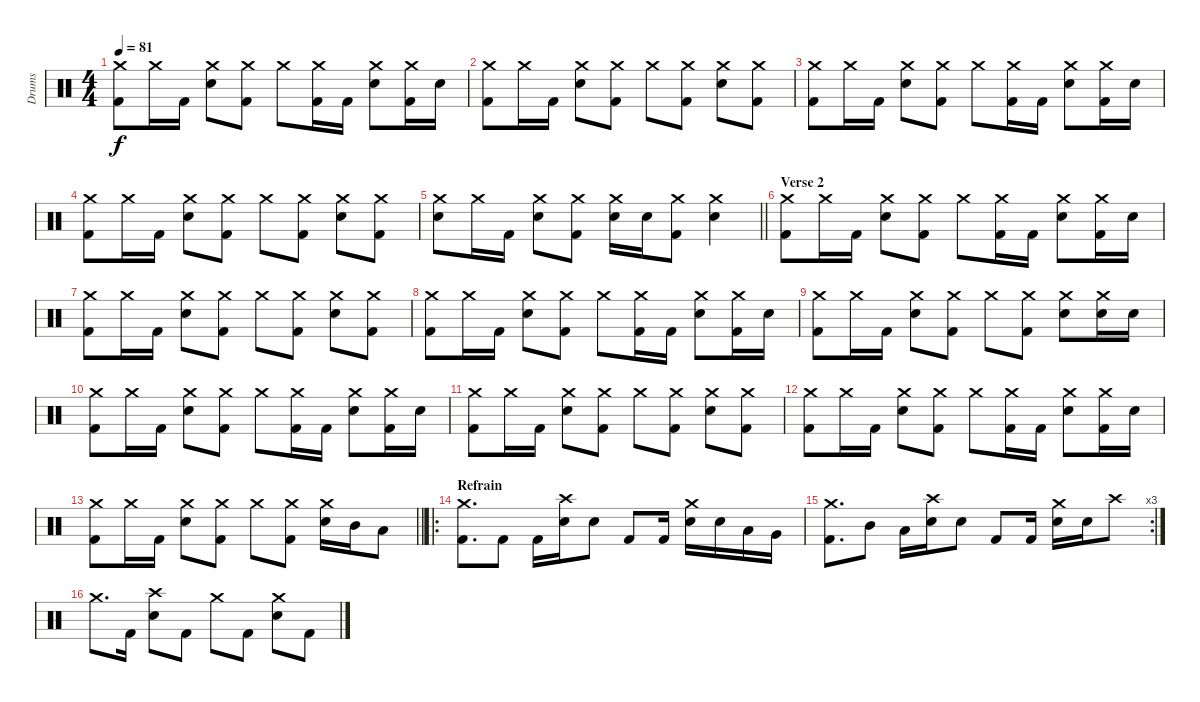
\track ("Drums" "Drums") {instrument percussion}
\staff {score}
\articulation defaults
\ts (4 4)
\tempo 81
\clef neutral
\ks c
("Kick (hit) 2" "Crash medium (hit)").8{dy f} "Crash medium (hit)".16 "Kick (hit) 2".16 ("Electric Snare (hit)" "Crash medium (hit)").8 ("Kick (hit) 2" "Crash medium (hit)").8 "Crash medium (hit)".8 ("Kick (hit) 2" "Crash medium (hit)").16 "Kick (hit) 2".16 ("Electric Snare (hit)" "Crash medium (hit)").8 ("Kick (hit) 2" "Crash medium (hit)").16 "Electric Snare (hit)".16 |
("Kick (hit) 2" "Crash medium (hit)").8 "Crash medium (hit)".16 "Kick (hit) 2".16 ("Electric Snare (hit)" "Crash medium (hit)").8 ("Kick (hit) 2" "Crash medium (hit)").8 "Crash medium (hit)".8 ("Kick (hit) 2" "Crash medium (hit)").8 ("Electric Snare (hit)" "Crash medium (hit)").8 ("Kick (hit) 2" "Crash medium (hit)").8 |
("Kick (hit) 2" "Crash medium (hit)").8 "Crash medium (hit)".16 "Kick (hit) 2".16 ("Electric Snare (hit)" "Crash medium (hit)").8 ("Kick (hit) 2" "Crash medium (hit)").8 "Crash medium (hit)".8 ("Kick (hit) 2" "Crash medium (hit)").16 "Kick (hit) 2".16 ("Electric Snare (hit)" "Crash medium (hit)").8 ("Kick (hit) 2" "Crash medium (hit)").16 "Electric Snare (hit)".16 |
("Kick (hit) 2" "Crash medium (hit)").8 "Crash medium (hit)".16 "Kick (hit) 2".16 ("Electric Snare (hit)" "Crash medium (hit)").8 ("Kick (hit) 2" "Crash medium (hit)").8 "Crash medium (hit)".8 ("Kick (hit) 2" "Crash medium (hit)").8 ("Electric Snare (hit)" "Crash medium (hit)").8 ("Kick (hit) 2" "Crash medium (hit)").8 |
\barLineRight lightlight
("Electric Snare (hit)" "Crash medium (hit)").8 "Crash medium (hit)".16 "Kick (hit) 2".16 ("Electric Snare (hit)" "Crash medium (hit)").8 ("Kick (hit) 2" "Crash medium (hit)").8 ("Electric Snare (hit)" "Crash medium (hit)").16 "Electric Snare (hit)".16 ("Kick (hit) 2" "Crash medium (hit)").8 ("Electric Snare (hit)" "Crash medium (hit)").4 |
\section ("" "Verse 2")
("Kick (hit) 2" "Crash medium (hit)").8 "Crash medium (hit)".16 "Kick (hit) 2".16 ("Electric Snare (hit)" "Crash medium (hit)").8 ("Kick (hit) 2" "Crash medium (hit)").8 "Crash medium (hit)".8 ("Kick (hit) 2" "Crash medium (hit)").16 "Kick (hit) 2".16 ("Electric Snare (hit)" "Crash medium (hit)").8 ("Kick (hit) 2" "Crash medium (hit)").16 "Electric Snare (hit)".16 |
("Kick (hit) 2" "Crash medium (hit)").8 "Crash medium (hit)".16 "Kick (hit) 2".16 ("Electric Snare (hit)" "Crash medium (hit)").8 ("Kick (hit) 2" "Crash medium (hit)").8 "Crash medium (hit)".8 ("Kick (hit) 2" "Crash medium (hit)").8 ("Electric Snare (hit)" "Crash medium (hit)").8 ("Kick (hit) 2" "Crash medium (hit)").8 |
("Kick (hit) 2" "Crash medium (hit)").8 "Crash medium (hit)".16 "Kick (hit) 2".16 ("Electric Snare (hit)" "Crash medium (hit)").8 ("Kick (hit) 2" "Crash medium (hit)").8 "Crash medium (hit)".8 ("Kick (hit) 2" "Crash medium (hit)").16 "Kick (hit) 2".16 ("Electric Snare (hit)" "Crash medium (hit)").8 ("Kick (hit) 2" "Crash medium (hit)").16 "Electric Snare (hit)".16 |
("Kick (hit) 2" "Crash medium (hit)").8 "Crash medium (hit)".16 "Kick (hit) 2".16 ("Electric Snare (hit)" "Crash medium (hit)").8 ("Kick (hit) 2" "Crash medium (hit)").8 "Crash medium (hit)".8 ("Kick (hit) 2" "Crash medium (hit)").8 ("Electric Snare (hit)" "Crash medium (hit)").8 ("Electric Snare (hit)" "Crash medium (hit)").16 "Electric Snare (hit)".16 |
("Kick (hit) 2" "Crash medium (hit)").8 "Crash medium (hit)".16 "Kick (hit) 2".16 ("Electric Snare (hit)" "Crash medium (hit)").8 ("Kick (hit) 2" "Crash medium (hit)").8 "Crash medium (hit)".8 ("Kick (hit) 2" "Crash medium (hit)").16 "Kick (hit) 2".16 ("Electric Snare (hit)" "Crash medium (hit)").8 ("Kick (hit) 2" "Crash medium (hit)").16 "Electric Snare (hit)".16 |
("Kick (hit) 2" "Crash medium (hit)").8 "Crash medium (hit)".16 "Kick (hit) 2".16 ("Electric Snare (hit)" "Crash medium (hit)").8 ("Kick (hit) 2" "Crash medium (hit)").8 "Crash medium (hit)".8 ("Kick (hit) 2" "Crash medium (hit)").8 ("Electric Snare (hit)" "Crash medium (hit)").8 ("Kick (hit) 2" "Crash medium (hit)").8 |
("Kick (hit) 2" "Crash medium (hit)").8 "Crash medium (hit)".16 "Kick (hit) 2".16 ("Electric Snare (hit)" "Crash medium (hit)").8 ("Kick (hit) 2" "Crash medium (hit)").8 "Crash medium (hit)".8 ("Kick (hit) 2" "Crash medium (hit)").16 "Kick (hit) 2".16 ("Electric Snare (hit)" "Crash medium (hit)").8 ("Kick (hit) 2" "Crash medium (hit)").16 "Electric Snare (hit)".16 |
\barLineRight lightlight
("Kick (hit) 2" "Crash medium (hit)").8 "Crash medium (hit)".16 "Kick (hit) 2".16 ("Electric Snare (hit)" "Crash medium (hit)").8 ("Kick (hit) 2" "Crash medium (hit)").8 "Crash medium (hit)".8 ("Kick (hit) 2" "Crash medium (hit)").8 ("Electric Snare (hit)" "Crash medium (hit)").16 "Mid Tom (hit)".16 "Low Tom (hit)".8 |
\ro
\section ("" "Refrain")
("Kick (hit) 2" "Crash medium (hit)").8{d} "Kick (hit) 2".8 "Kick (hit) 2".16 ("Electric Snare (hit)" "Crash high (hit)").16 "Electric Snare (hit)".8 "Kick (hit) 2".8 "Kick (hit) 2".16 ("Electric Snare (hit)" "Crash medium (hit)").16 "Electric Snare (hit)".16 "Low Tom (hit)".16 "Very Low Tom (hit)".16 |
\rc 3
("Kick (hit) 2" "Crash medium (hit)").8{d} "Mid Tom (hit)".8 "Low Tom (hit)".16 ("Electric Snare (hit)" "Crash high (hit)").16 "Electric Snare (hit)".8 "Kick (hit) 2".8 "Kick (hit) 2".16 ("Electric Snare (hit)" "Crash medium (hit)").16 "Electric Snare (hit)".16 "Crash high (hit)".8 |
"Crash medium (hit)".8{d} "Kick (hit) 2".16 ("Electric Snare (hit)" "Crash high (hit)").8 "Kick (hit) 2".8 "Crash medium (hit)".8 "Kick (hit) 2".8 ("Electric Snare (hit)" "Crash medium (hit)").8 "Kick (hit) 2".8
